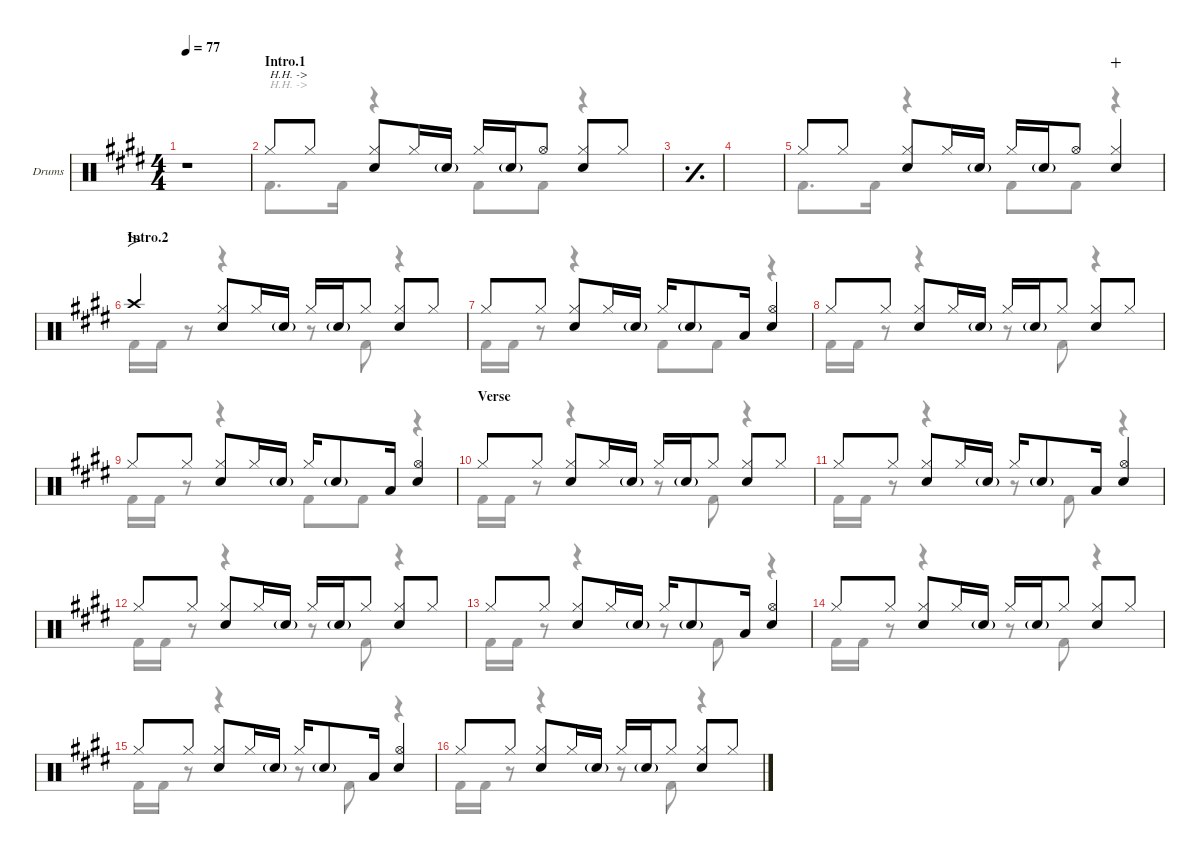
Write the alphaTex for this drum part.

\defaultSystemsLayout 4
\hideDynamics
\bracketExtendMode nobrackets
\firstSystemTrackNameOrientation horizontal
\track ("Drums" "Drums") {defaultSystemsLayout 4 instrument percussion}
\staff {score}
\articulation defaults
\voice
\ts (4 4)
\beaming (8 2 2 2 2)
\tempo 77
\clef neutral
\ks e
r.1{dy f} |
\section ("" "Intro.1")
"Hi-Hat (closed)"{acc forcenatural}.8{txt "H.H. ->"} "Hi-Hat (closed)"{acc forcenatural}.8{dy mp beam split} ("Snare (hit) 2"{acc forcenatural} "Hi-Hat (closed)"{acc forcenatural}).8{dy f} "Hi-Hat (closed)"{acc forcenatural}.16{dy mp} "Snare (hit) 2"{g acc forcenatural}.16{dy mf} "Hi-Hat (closed)"{acc forcenatural}.16{dy f} "Snare (hit) 2"{g acc forcenatural}.16{dy mf} "Hi-Hat (open)"{acc forcenatural}.8{dy f beam split} ("Snare (hit) 2"{acc forcenatural} "Hi-Hat (closed)"{acc forcenatural}).8 "Hi-Hat (closed)"{acc forcenatural}.8{dy mp} |
\simile simple
|
|
\simile none "Hi-Hat (closed)"{acc forcenatural}.8{dy f} "Hi-Hat (closed)"{acc forcenatural}.8{dy mp beam split}
("Snare (hit) 2"{acc forcenatural} "Hi-Hat (closed)"{acc forcenatural}).8{dy f} "Hi-Hat (closed)"{acc forcenatural}.16{dy mp} "Snare (hit) 2"{g acc forcenatural}.16{dy mf} "Hi-Hat (closed)"{acc forcenatural}.16{dy f} "Snare (hit) 2"{g acc forcenatural}.16{dy mf} "Hi-Hat (open)"{acc forcenatural}.8{dy f beam split} ("Snare (hit) 2"{acc forcenatural} "Hi-Hat (closed)"{acc forcenatural}).4{wahc} |
\section ("" "Intro.2")
"Crash high (hit)"{acc forcenatural}.4{fo} ("Snare (hit) 2"{acc forcenatural} "Hi-Hat (closed)"{acc forcenatural}).8 "Hi-Hat (closed)"{acc forcenatural}.16{dy mp} "Snare (hit) 2"{g acc forcenatural}.16{dy mf} "Hi-Hat (closed)"{acc forcenatural}.16{dy f} "Snare (hit) 2"{g acc forcenatural}.16{dy mf} "Hi-Hat (closed)"{acc forcenatural}.8{dy mp beam split} ("Snare (hit) 2"{acc forcenatural} "Hi-Hat (closed)"{acc forcenatural}).8{dy f} "Hi-Hat (closed)"{acc forcenatural}.8{dy mp} |
"Hi-Hat (closed)"{acc forcenatural}.8{dy f} "Hi-Hat (closed)"{acc forcenatural}.8{dy mp beam split} ("Snare (hit) 2"{acc forcenatural} "Hi-Hat (closed)"{acc forcenatural}).8{dy f} "Hi-Hat (closed)"{acc forcenatural}.16{dy mp} "Snare (hit) 2"{g acc forcenatural}.16{dy mf} "Hi-Hat (closed)"{acc forcenatural}.16{dy f} "Snare (hit) 2"{g acc forcenatural}.8{dy mf} "Low Tom (hit)"{acc forcenatural}.16{beam split} ("Snare (hit) 2"{acc forcenatural} "Hi-Hat (open)"{acc forcenatural}).4{dy f} |
"Hi-Hat (closed)"{acc forcenatural}.8 "Hi-Hat (closed)"{acc forcenatural}.8{dy mp beam split} ("Snare (hit) 2"{acc forcenatural} "Hi-Hat (closed)"{acc forcenatural}).8{dy f} "Hi-Hat (closed)"{acc forcenatural}.16{dy mp} "Snare (hit) 2"{g acc forcenatural}.16{dy mf} "Hi-Hat (closed)"{acc forcenatural}.16{dy f} "Snare (hit) 2"{g acc forcenatural}.16{dy mf} "Hi-Hat (closed)"{acc forcenatural}.8{dy mp beam split} ("Snare (hit) 2"{acc forcenatural} "Hi-Hat (closed)"{acc forcenatural}).8{dy f} "Hi-Hat (closed)"{acc forcenatural}.8{dy mp} |
"Hi-Hat (closed)"{acc forcenatural}.8{dy f} "Hi-Hat (closed)"{acc forcenatural}.8{dy mp beam split} ("Snare (hit) 2"{acc forcenatural} "Hi-Hat (closed)"{acc forcenatural}).8{dy f} "Hi-Hat (closed)"{acc forcenatural}.16{dy mp} "Snare (hit) 2"{g acc forcenatural}.16{dy mf} "Hi-Hat (closed)"{acc forcenatural}.16{dy f} "Snare (hit) 2"{g acc forcenatural}.8{dy mf} "Low Tom (hit)"{acc forcenatural}.16{beam split} ("Snare (hit) 2"{acc forcenatural} "Hi-Hat (open)"{acc forcenatural}).4{dy f} |
\section ("" "Verse")
"Hi-Hat (closed)"{acc forcenatural}.8 "Hi-Hat (closed)"{acc forcenatural}.8{dy mp beam split} ("Snare (hit) 2"{acc forcenatural} "Hi-Hat (closed)"{acc forcenatural}).8{dy f} "Hi-Hat (closed)"{acc forcenatural}.16{dy mp} "Snare (hit) 2"{g acc forcenatural}.16{dy mf} "Hi-Hat (closed)"{acc forcenatural}.16{dy f} "Snare (hit) 2"{g acc forcenatural}.16{dy mf} "Hi-Hat (closed)"{acc forcenatural}.8{dy mp beam split} ("Snare (hit) 2"{acc forcenatural} "Hi-Hat (closed)"{acc forcenatural}).8{dy f} "Hi-Hat (closed)"{acc forcenatural}.8{dy mp} |
"Hi-Hat (closed)"{acc forcenatural}.8{dy f} "Hi-Hat (closed)"{acc forcenatural}.8{dy mp beam split} ("Snare (hit) 2"{acc forcenatural} "Hi-Hat (closed)"{acc forcenatural}).8{dy f} "Hi-Hat (closed)"{acc forcenatural}.16{dy mp} "Snare (hit) 2"{g acc forcenatural}.16{dy mf} "Hi-Hat (closed)"{acc forcenatural}.16{dy f} "Snare (hit) 2"{g acc forcenatural}.8{dy mf} "Low Tom (hit)"{acc forcenatural}.16{beam split} ("Snare (hit) 2"{acc forcenatural} "Hi-Hat (open)"{acc forcenatural}).4{dy f} |
"Hi-Hat (closed)"{acc forcenatural}.8 "Hi-Hat (closed)"{acc forcenatural}.8{dy mp beam split} ("Snare (hit) 2"{acc forcenatural} "Hi-Hat (closed)"{acc forcenatural}).8{dy f} "Hi-Hat (closed)"{acc forcenatural}.16{dy mp} "Snare (hit) 2"{g acc forcenatural}.16{dy mf} "Hi-Hat (closed)"{acc forcenatural}.16{dy f} "Snare (hit) 2"{g acc forcenatural}.16{dy mf} "Hi-Hat (closed)"{acc forcenatural}.8{dy mp beam split} ("Snare (hit) 2"{acc forcenatural} "Hi-Hat (closed)"{acc forcenatural}).8{dy f} "Hi-Hat (closed)"{acc forcenatural}.8{dy mp} |
"Hi-Hat (closed)"{acc forcenatural}.8{dy f} "Hi-Hat (closed)"{acc forcenatural}.8{dy mp beam split} ("Snare (hit) 2"{acc forcenatural} "Hi-Hat (closed)"{acc forcenatural}).8{dy f} "Hi-Hat (closed)"{acc forcenatural}.16{dy mp} "Snare (hit) 2"{g acc forcenatural}.16{dy mf} "Hi-Hat (closed)"{acc forcenatural}.16{dy f} "Snare (hit) 2"{g acc forcenatural}.8{dy mf} "Low Tom (hit)"{acc forcenatural}.16{beam split} ("Snare (hit) 2"{acc forcenatural} "Hi-Hat (open)"{acc forcenatural}).4{dy f} |
"Hi-Hat (closed)"{acc forcenatural}.8 "Hi-Hat (closed)"{acc forcenatural}.8{dy mp beam split} ("Snare (hit) 2"{acc forcenatural} "Hi-Hat (closed)"{acc forcenatural}).8{dy f} "Hi-Hat (closed)"{acc forcenatural}.16{dy mp} "Snare (hit) 2"{g acc forcenatural}.16{dy mf} "Hi-Hat (closed)"{acc forcenatural}.16{dy f} "Snare (hit) 2"{g acc forcenatural}.16{dy mf} "Hi-Hat (closed)"{acc forcenatural}.8{dy mp beam split} ("Snare (hit) 2"{acc forcenatural} "Hi-Hat (closed)"{acc forcenatural}).8{dy f} "Hi-Hat (closed)"{acc forcenatural}.8{dy mp} |
"Hi-Hat (closed)"{acc forcenatural}.8{dy f} "Hi-Hat (closed)"{acc forcenatural}.8{dy mp beam split} ("Snare (hit) 2"{acc forcenatural} "Hi-Hat (closed)"{acc forcenatural}).8{dy f} "Hi-Hat (closed)"{acc forcenatural}.16{dy mp} "Snare (hit) 2"{g acc forcenatural}.16{dy mf} "Hi-Hat (closed)"{acc forcenatural}.16{dy f} "Snare (hit) 2"{g acc forcenatural}.8{dy mf} "Low Tom (hit)"{acc forcenatural}.16{beam split} ("Snare (hit) 2"{acc forcenatural} "Hi-Hat (open)"{acc forcenatural}).4{dy f} |
"Hi-Hat (closed)"{acc forcenatural}.8 "Hi-Hat (closed)"{acc forcenatural}.8{dy mp beam split} ("Snare (hit) 2"{acc forcenatural} "Hi-Hat (closed)"{acc forcenatural}).8{dy f} "Hi-Hat (closed)"{acc forcenatural}.16{dy mp} "Snare (hit) 2"{g acc forcenatural}.16{dy mf} "Hi-Hat (closed)"{acc forcenatural}.16{dy f} "Snare (hit) 2"{g acc forcenatural}.16{dy mf} "Hi-Hat (closed)"{acc forcenatural}.8{dy mp beam split} ("Snare (hit) 2"{acc forcenatural} "Hi-Hat (closed)"{acc forcenatural}).8{dy f} "Hi-Hat (closed)"{acc forcenatural}.8{dy mp}
\voice
\clef neutral
\ottava regular
\simile none
\ks e
|
"Kick (hit) 2"{acc forcenatural}.8{d txt "H.H. ->"} "Kick (hit) 2"{acc forcenatural}.16 r.4 "Kick (hit) 2"{acc forcenatural}.8 "Kick (hit) 2"{acc forcenatural}.8 r.4 |
\simile simple
|
|
\simile none "Kick (hit) 2"{acc forcenatural}.8{d} "Kick (hit) 2"{acc forcenatural}.16
r.4 "Kick (hit) 2"{acc forcenatural}.8 "Kick (hit) 2"{acc forcenatural}.8 r.4 |
"Kick (hit) 2"{acc forcenatural}.16 "Kick (hit) 2"{acc forcenatural}.16 r.8 r.4 r.8 "Kick (hit) 2"{acc forcenatural}.8 r.4 |
"Kick (hit) 2"{acc forcenatural}.16 "Kick (hit) 2"{acc forcenatural}.16 r.8 r.4 "Kick (hit) 2"{acc forcenatural}.8 "Kick (hit) 2"{acc forcenatural}.8 r.4 |
"Kick (hit) 2"{acc forcenatural}.16 "Kick (hit) 2"{acc forcenatural}.16 r.8 r.4 r.8 "Kick (hit) 2"{acc forcenatural}.8 r.4 |
"Kick (hit) 2"{acc forcenatural}.16 "Kick (hit) 2"{acc forcenatural}.16 r.8 r.4 "Kick (hit) 2"{acc forcenatural}.8 "Kick (hit) 2"{acc forcenatural}.8 r.4 |
"Kick (hit) 2"{acc forcenatural}.16 "Kick (hit) 2"{acc forcenatural}.16 r.8 r.4 r.8 "Kick (hit) 2"{acc forcenatural}.8 r.4 |
"Kick (hit) 2"{acc forcenatural}.16 "Kick (hit) 2"{acc forcenatural}.16 r.8 r.4 r.8 "Kick (hit) 2"{acc forcenatural}.8 r.4 |
"Kick (hit) 2"{acc forcenatural}.16 "Kick (hit) 2"{acc forcenatural}.16 r.8 r.4 r.8 "Kick (hit) 2"{acc forcenatural}.8 r.4 |
"Kick (hit) 2"{acc forcenatural}.16 "Kick (hit) 2"{acc forcenatural}.16 r.8 r.4 r.8 "Kick (hit) 2"{acc forcenatural}.8 r.4 |
"Kick (hit) 2"{acc forcenatural}.16 "Kick (hit) 2"{acc forcenatural}.16 r.8 r.4 r.8 "Kick (hit) 2"{acc forcenatural}.8 r.4 |
"Kick (hit) 2"{acc forcenatural}.16 "Kick (hit) 2"{acc forcenatural}.16 r.8 r.4 r.8 "Kick (hit) 2"{acc forcenatural}.8 r.4 |
"Kick (hit) 2"{acc forcenatural}.16 "Kick (hit) 2"{acc forcenatural}.16 r.8 r.4 r.8 "Kick (hit) 2"{acc forcenatural}.8 r.4
